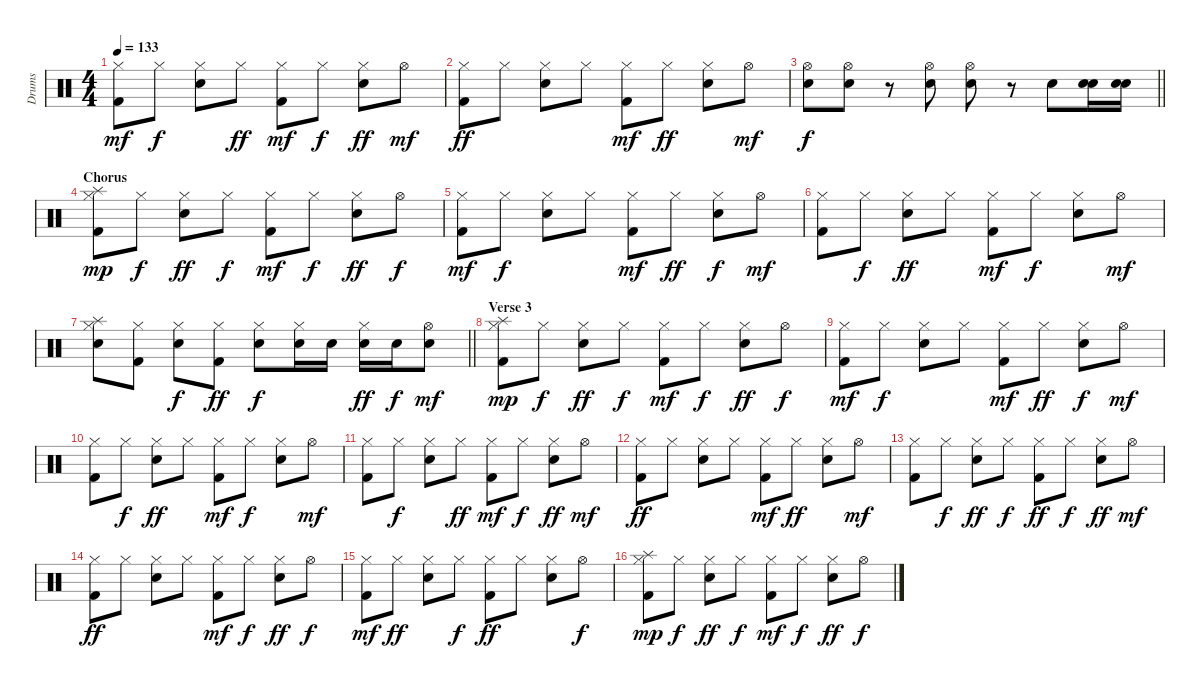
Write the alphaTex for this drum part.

\track ("Drums   " "Drums   ") {instrument percussion}
\staff {score}
\articulation defaults
\ts (4 4)
\tempo 133
\clef neutral
\ks c
("Kick (hit) 2" "Hi-Hat (closed)").8{dy mf} "Hi-Hat (closed)".8{dy f} ("Electric Snare (hit)" "Hi-Hat (closed)").8 "Hi-Hat (closed)".8{dy ff} ("Kick (hit) 2" "Hi-Hat (closed)").8{dy mf} "Hi-Hat (closed)".8{dy f} ("Electric Snare (hit)" "Hi-Hat (closed)").8{dy ff} "Hi-Hat (open)".8{dy mf} |
("Kick (hit) 2" "Hi-Hat (closed)").8{dy ff} "Hi-Hat (closed)".8 ("Electric Snare (hit)" "Hi-Hat (closed)").8 "Hi-Hat (closed)".8 ("Kick (hit) 2" "Hi-Hat (closed)").8{dy mf} "Hi-Hat (closed)".8{dy ff} ("Electric Snare (hit)" "Hi-Hat (closed)").8 "Hi-Hat (open)".8{dy mf} |
\barLineRight lightlight
("Electric Snare (hit)" "Hi-Hat (open)").8{dy f} ("Electric Snare (hit)" "Hi-Hat (open)").8 r.8 ("Electric Snare (hit)" "Hi-Hat (open)").8 ("Electric Snare (hit)" "Hi-Hat (open)").8 r.8 "Electric Snare (hit)".8 ("Electric Snare (hit)" "Electric Snare (hit)").16 ("Electric Snare (hit)" "Electric Snare (hit)").16 |
\section ("" "Chorus")
("Kick (hit) 2" "Hi-Hat (closed)" "Splash (hit)").8{dy mp} "Hi-Hat (closed)".8{dy f} ("Electric Snare (hit)" "Hi-Hat (closed)").8{dy ff} "Hi-Hat (closed)".8{dy f} ("Kick (hit) 2" "Hi-Hat (closed)").8{dy mf} "Hi-Hat (closed)".8{dy f} ("Electric Snare (hit)" "Hi-Hat (closed)").8{dy ff} "Hi-Hat (open)".8{dy f} |
("Kick (hit) 2" "Hi-Hat (closed)").8{dy mf} "Hi-Hat (closed)".8{dy f} ("Electric Snare (hit)" "Hi-Hat (closed)").8 "Hi-Hat (closed)".8 ("Kick (hit) 2" "Hi-Hat (closed)").8{dy mf} "Hi-Hat (closed)".8{dy ff} ("Electric Snare (hit)" "Hi-Hat (closed)").8{dy f} "Hi-Hat (open)".8{dy mf} |
("Kick (hit) 2" "Hi-Hat (closed)").8 "Hi-Hat (closed)".8{dy f} ("Electric Snare (hit)" "Hi-Hat (closed)").8{dy ff} "Hi-Hat (closed)".8 ("Kick (hit) 2" "Hi-Hat (closed)").8{dy mf} "Hi-Hat (closed)".8{dy f} ("Electric Snare (hit)" "Hi-Hat (closed)").8 "Hi-Hat (open)".8{dy mf} |
\barLineRight lightlight
("Electric Snare (hit)" "Hi-Hat (closed)" "Splash (hit)").8 ("Kick (hit) 2" "Hi-Hat (closed)").8 ("Electric Snare (hit)" "Hi-Hat (closed)").8{dy f} ("Kick (hit) 2" "Hi-Hat (closed)").8{dy ff} ("Electric Snare (hit)" "Hi-Hat (closed)").8{dy f} ("Electric Snare (hit)" "Hi-Hat (closed)").16 "Electric Snare (hit)".16 ("Electric Snare (hit)" "Hi-Hat (closed)").16{dy ff} "Electric Snare (hit)".16{dy f} ("Electric Snare (hit)" "Hi-Hat (open)").8{dy mf} |
\section ("" "Verse 3")
("Kick (hit) 2" "Hi-Hat (closed)" "Splash (hit)").8{dy mp} "Hi-Hat (closed)".8{dy f} ("Electric Snare (hit)" "Hi-Hat (closed)").8{dy ff} "Hi-Hat (closed)".8{dy f} ("Kick (hit) 2" "Hi-Hat (closed)").8{dy mf} "Hi-Hat (closed)".8{dy f} ("Electric Snare (hit)" "Hi-Hat (closed)").8{dy ff} "Hi-Hat (open)".8{dy f} |
("Kick (hit) 2" "Hi-Hat (closed)").8{dy mf} "Hi-Hat (closed)".8{dy f} ("Electric Snare (hit)" "Hi-Hat (closed)").8 "Hi-Hat (closed)".8 ("Kick (hit) 2" "Hi-Hat (closed)").8{dy mf} "Hi-Hat (closed)".8{dy ff} ("Electric Snare (hit)" "Hi-Hat (closed)").8{dy f} "Hi-Hat (open)".8{dy mf} |
("Kick (hit) 2" "Hi-Hat (closed)").8 "Hi-Hat (closed)".8{dy f} ("Electric Snare (hit)" "Hi-Hat (closed)").8{dy ff} "Hi-Hat (closed)".8 ("Kick (hit) 2" "Hi-Hat (closed)").8{dy mf} "Hi-Hat (closed)".8{dy f} ("Electric Snare (hit)" "Hi-Hat (closed)").8 "Hi-Hat (open)".8{dy mf} |
("Kick (hit) 2" "Hi-Hat (closed)").8 "Hi-Hat (closed)".8{dy f} ("Electric Snare (hit)" "Hi-Hat (closed)").8 "Hi-Hat (closed)".8{dy ff} ("Kick (hit) 2" "Hi-Hat (closed)").8{dy mf} "Hi-Hat (closed)".8{dy f} ("Electric Snare (hit)" "Hi-Hat (closed)").8{dy ff} "Hi-Hat (open)".8{dy mf} |
("Kick (hit) 2" "Hi-Hat (closed)").8{dy ff} "Hi-Hat (closed)".8 ("Electric Snare (hit)" "Hi-Hat (closed)").8 "Hi-Hat (closed)".8 ("Kick (hit) 2" "Hi-Hat (closed)").8{dy mf} "Hi-Hat (closed)".8{dy ff} ("Electric Snare (hit)" "Hi-Hat (closed)").8 "Hi-Hat (open)".8{dy mf} |
("Kick (hit) 2" "Hi-Hat (closed)").8 "Hi-Hat (closed)".8{dy f} ("Electric Snare (hit)" "Hi-Hat (closed)").8{dy ff} "Hi-Hat (closed)".8{dy f} ("Kick (hit) 2" "Hi-Hat (closed)").8{dy ff} "Hi-Hat (closed)".8{dy f} ("Electric Snare (hit)" "Hi-Hat (closed)").8{dy ff} "Hi-Hat (open)".8{dy mf} |
("Kick (hit) 2" "Hi-Hat (closed)").8{dy ff} "Hi-Hat (closed)".8 ("Electric Snare (hit)" "Hi-Hat (closed)").8 "Hi-Hat (closed)".8 ("Kick (hit) 2" "Hi-Hat (closed)").8{dy mf} "Hi-Hat (closed)".8{dy f} ("Electric Snare (hit)" "Hi-Hat (closed)").8{dy ff} "Hi-Hat (open)".8{dy f} |
("Kick (hit) 2" "Hi-Hat (closed)").8{dy mf} "Hi-Hat (closed)".8{dy ff} ("Electric Snare (hit)" "Hi-Hat (closed)").8 "Hi-Hat (closed)".8{dy f} ("Kick (hit) 2" "Hi-Hat (closed)").8{dy ff} "Hi-Hat (closed)".8 ("Hi-Hat (closed)" "Electric Snare (hit)").8 "Hi-Hat (open)".8{dy f} |
("Kick (hit) 2" "Hi-Hat (closed)" "Splash (hit)").8{dy mp} "Hi-Hat (closed)".8{dy f} ("Electric Snare (hit)" "Hi-Hat (closed)").8{dy ff} "Hi-Hat (closed)".8{dy f} ("Kick (hit) 2" "Hi-Hat (closed)").8{dy mf} "Hi-Hat (closed)".8{dy f} ("Electric Snare (hit)" "Hi-Hat (closed)").8{dy ff} "Hi-Hat (open)".8{dy f}
